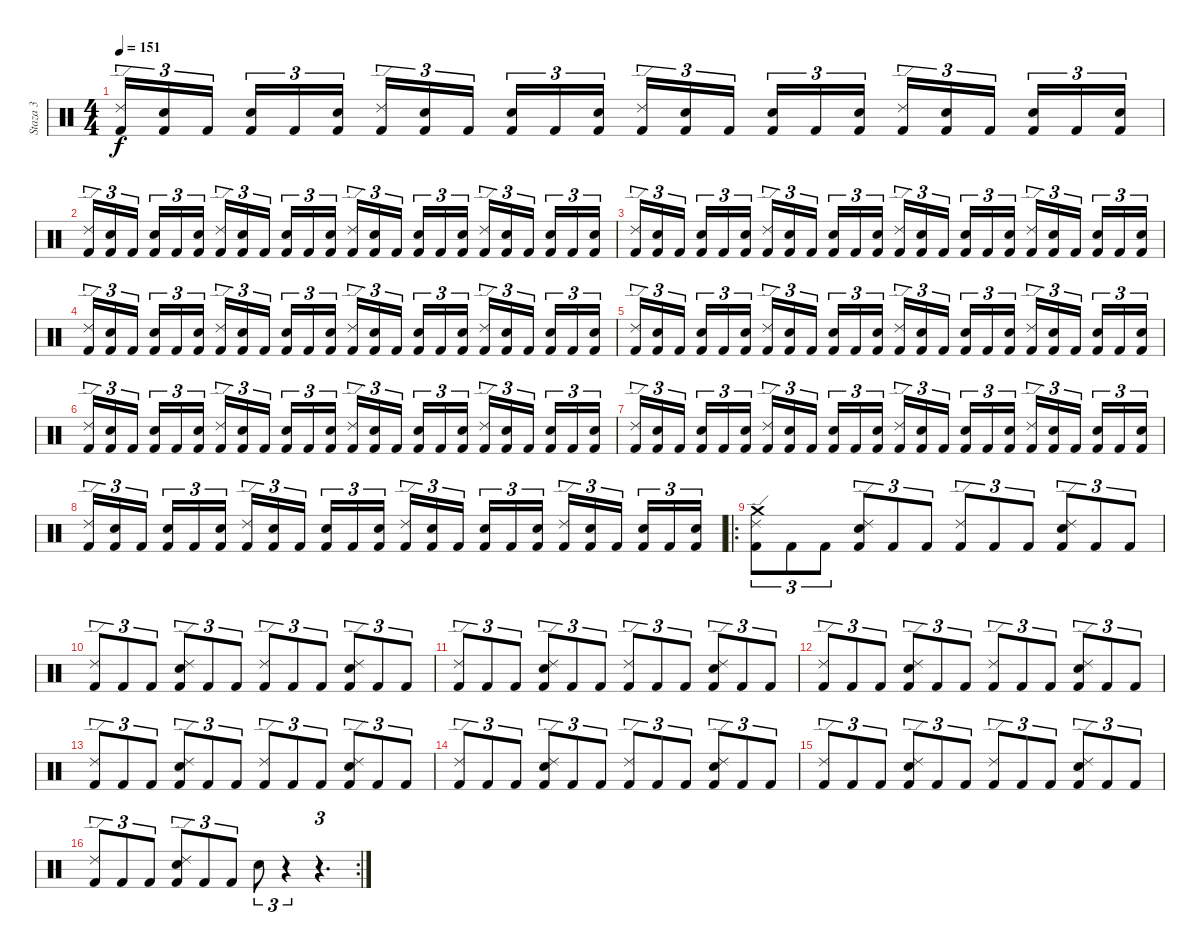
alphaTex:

\track ("Staza 3" "Staza 3") {instrument percussion}
\staff {score}
\articulation defaults
\ts (4 4)
\tempo 151
\clef neutral
\ks c
("Kick (hit) 2" "Ride (edge) 2").16{tu (3 2) dy f} ("Kick (hit) 2" "Electric Snare (hit)").16{tu (3 2)} "Kick (hit) 2".16{tu (3 2)} ("Kick (hit) 2" "Electric Snare (hit)").16{tu (3 2)} "Kick (hit) 2".16{tu (3 2)} ("Kick (hit) 2" "Electric Snare (hit)").16{tu (3 2)} ("Kick (hit) 2" "Ride (edge) 2").16{tu (3 2)} ("Kick (hit) 2" "Electric Snare (hit)").16{tu (3 2)} "Kick (hit) 2".16{tu (3 2)} ("Kick (hit) 2" "Electric Snare (hit)").16{tu (3 2)} "Kick (hit) 2".16{tu (3 2)} ("Kick (hit) 2" "Electric Snare (hit)").16{tu (3 2)} ("Kick (hit) 2" "Ride (edge) 2").16{tu (3 2)} ("Kick (hit) 2" "Electric Snare (hit)").16{tu (3 2)} "Kick (hit) 2".16{tu (3 2)} ("Kick (hit) 2" "Electric Snare (hit)").16{tu (3 2)} "Kick (hit) 2".16{tu (3 2)} ("Kick (hit) 2" "Electric Snare (hit)").16{tu (3 2)} ("Kick (hit) 2" "Ride (edge) 2").16{tu (3 2)} ("Kick (hit) 2" "Electric Snare (hit)").16{tu (3 2)} "Kick (hit) 2".16{tu (3 2)} ("Kick (hit) 2" "Electric Snare (hit)").16{tu (3 2)} "Kick (hit) 2".16{tu (3 2)} ("Kick (hit) 2" "Electric Snare (hit)").16{tu (3 2)} |
("Kick (hit) 2" "Ride (edge) 2").16{tu (3 2)} ("Kick (hit) 2" "Electric Snare (hit)").16{tu (3 2)} "Kick (hit) 2".16{tu (3 2)} ("Kick (hit) 2" "Electric Snare (hit)").16{tu (3 2)} "Kick (hit) 2".16{tu (3 2)} ("Kick (hit) 2" "Electric Snare (hit)").16{tu (3 2)} ("Kick (hit) 2" "Ride (edge) 2").16{tu (3 2)} ("Kick (hit) 2" "Electric Snare (hit)").16{tu (3 2)} "Kick (hit) 2".16{tu (3 2)} ("Kick (hit) 2" "Electric Snare (hit)").16{tu (3 2)} "Kick (hit) 2".16{tu (3 2)} ("Kick (hit) 2" "Electric Snare (hit)").16{tu (3 2)} ("Kick (hit) 2" "Ride (edge) 2").16{tu (3 2)} ("Kick (hit) 2" "Electric Snare (hit)").16{tu (3 2)} "Kick (hit) 2".16{tu (3 2)} ("Kick (hit) 2" "Electric Snare (hit)").16{tu (3 2)} "Kick (hit) 2".16{tu (3 2)} ("Kick (hit) 2" "Electric Snare (hit)").16{tu (3 2)} ("Kick (hit) 2" "Ride (edge) 2").16{tu (3 2)} ("Kick (hit) 2" "Electric Snare (hit)").16{tu (3 2)} "Kick (hit) 2".16{tu (3 2)} ("Kick (hit) 2" "Electric Snare (hit)").16{tu (3 2)} "Kick (hit) 2".16{tu (3 2)} ("Kick (hit) 2" "Electric Snare (hit)").16{tu (3 2)} |
("Kick (hit) 2" "Ride (edge) 2").16{tu (3 2)} ("Kick (hit) 2" "Electric Snare (hit)").16{tu (3 2)} "Kick (hit) 2".16{tu (3 2)} ("Kick (hit) 2" "Electric Snare (hit)").16{tu (3 2)} "Kick (hit) 2".16{tu (3 2)} ("Kick (hit) 2" "Electric Snare (hit)").16{tu (3 2)} ("Kick (hit) 2" "Ride (edge) 2").16{tu (3 2)} ("Kick (hit) 2" "Electric Snare (hit)").16{tu (3 2)} "Kick (hit) 2".16{tu (3 2)} ("Kick (hit) 2" "Electric Snare (hit)").16{tu (3 2)} "Kick (hit) 2".16{tu (3 2)} ("Kick (hit) 2" "Electric Snare (hit)").16{tu (3 2)} ("Kick (hit) 2" "Ride (edge) 2").16{tu (3 2)} ("Kick (hit) 2" "Electric Snare (hit)").16{tu (3 2)} "Kick (hit) 2".16{tu (3 2)} ("Kick (hit) 2" "Electric Snare (hit)").16{tu (3 2)} "Kick (hit) 2".16{tu (3 2)} ("Kick (hit) 2" "Electric Snare (hit)").16{tu (3 2)} ("Kick (hit) 2" "Ride (edge) 2").16{tu (3 2)} ("Kick (hit) 2" "Electric Snare (hit)").16{tu (3 2)} "Kick (hit) 2".16{tu (3 2)} ("Kick (hit) 2" "Electric Snare (hit)").16{tu (3 2)} "Kick (hit) 2".16{tu (3 2)} ("Kick (hit) 2" "Electric Snare (hit)").16{tu (3 2)} |
("Kick (hit) 2" "Ride (edge) 2").16{tu (3 2)} ("Kick (hit) 2" "Electric Snare (hit)").16{tu (3 2)} "Kick (hit) 2".16{tu (3 2)} ("Kick (hit) 2" "Electric Snare (hit)").16{tu (3 2)} "Kick (hit) 2".16{tu (3 2)} ("Kick (hit) 2" "Electric Snare (hit)").16{tu (3 2)} ("Kick (hit) 2" "Ride (edge) 2").16{tu (3 2)} ("Kick (hit) 2" "Electric Snare (hit)").16{tu (3 2)} "Kick (hit) 2".16{tu (3 2)} ("Kick (hit) 2" "Electric Snare (hit)").16{tu (3 2)} "Kick (hit) 2".16{tu (3 2)} ("Kick (hit) 2" "Electric Snare (hit)").16{tu (3 2)} ("Kick (hit) 2" "Ride (edge) 2").16{tu (3 2)} ("Kick (hit) 2" "Electric Snare (hit)").16{tu (3 2)} "Kick (hit) 2".16{tu (3 2)} ("Kick (hit) 2" "Electric Snare (hit)").16{tu (3 2)} "Kick (hit) 2".16{tu (3 2)} ("Kick (hit) 2" "Electric Snare (hit)").16{tu (3 2)} ("Kick (hit) 2" "Ride (edge) 2").16{tu (3 2)} ("Kick (hit) 2" "Electric Snare (hit)").16{tu (3 2)} "Kick (hit) 2".16{tu (3 2)} ("Kick (hit) 2" "Electric Snare (hit)").16{tu (3 2)} "Kick (hit) 2".16{tu (3 2)} ("Kick (hit) 2" "Electric Snare (hit)").16{tu (3 2)} |
("Kick (hit) 2" "Ride (edge) 2").16{tu (3 2)} ("Kick (hit) 2" "Electric Snare (hit)").16{tu (3 2)} "Kick (hit) 2".16{tu (3 2)} ("Kick (hit) 2" "Electric Snare (hit)").16{tu (3 2)} "Kick (hit) 2".16{tu (3 2)} ("Kick (hit) 2" "Electric Snare (hit)").16{tu (3 2)} ("Kick (hit) 2" "Ride (edge) 2").16{tu (3 2)} ("Kick (hit) 2" "Electric Snare (hit)").16{tu (3 2)} "Kick (hit) 2".16{tu (3 2)} ("Kick (hit) 2" "Electric Snare (hit)").16{tu (3 2)} "Kick (hit) 2".16{tu (3 2)} ("Kick (hit) 2" "Electric Snare (hit)").16{tu (3 2)} ("Kick (hit) 2" "Ride (edge) 2").16{tu (3 2)} ("Kick (hit) 2" "Electric Snare (hit)").16{tu (3 2)} "Kick (hit) 2".16{tu (3 2)} ("Kick (hit) 2" "Electric Snare (hit)").16{tu (3 2)} "Kick (hit) 2".16{tu (3 2)} ("Kick (hit) 2" "Electric Snare (hit)").16{tu (3 2)} ("Kick (hit) 2" "Ride (edge) 2").16{tu (3 2)} ("Kick (hit) 2" "Electric Snare (hit)").16{tu (3 2)} "Kick (hit) 2".16{tu (3 2)} ("Kick (hit) 2" "Electric Snare (hit)").16{tu (3 2)} "Kick (hit) 2".16{tu (3 2)} ("Kick (hit) 2" "Electric Snare (hit)").16{tu (3 2)} |
("Kick (hit) 2" "Ride (edge) 2").16{tu (3 2)} ("Kick (hit) 2" "Electric Snare (hit)").16{tu (3 2)} "Kick (hit) 2".16{tu (3 2)} ("Kick (hit) 2" "Electric Snare (hit)").16{tu (3 2)} "Kick (hit) 2".16{tu (3 2)} ("Kick (hit) 2" "Electric Snare (hit)").16{tu (3 2)} ("Kick (hit) 2" "Ride (edge) 2").16{tu (3 2)} ("Kick (hit) 2" "Electric Snare (hit)").16{tu (3 2)} "Kick (hit) 2".16{tu (3 2)} ("Kick (hit) 2" "Electric Snare (hit)").16{tu (3 2)} "Kick (hit) 2".16{tu (3 2)} ("Kick (hit) 2" "Electric Snare (hit)").16{tu (3 2)} ("Kick (hit) 2" "Ride (edge) 2").16{tu (3 2)} ("Kick (hit) 2" "Electric Snare (hit)").16{tu (3 2)} "Kick (hit) 2".16{tu (3 2)} ("Kick (hit) 2" "Electric Snare (hit)").16{tu (3 2)} "Kick (hit) 2".16{tu (3 2)} ("Kick (hit) 2" "Electric Snare (hit)").16{tu (3 2)} ("Kick (hit) 2" "Ride (edge) 2").16{tu (3 2)} ("Kick (hit) 2" "Electric Snare (hit)").16{tu (3 2)} "Kick (hit) 2".16{tu (3 2)} ("Kick (hit) 2" "Electric Snare (hit)").16{tu (3 2)} "Kick (hit) 2".16{tu (3 2)} ("Kick (hit) 2" "Electric Snare (hit)").16{tu (3 2)} |
("Kick (hit) 2" "Ride (edge) 2").16{tu (3 2)} ("Kick (hit) 2" "Electric Snare (hit)").16{tu (3 2)} "Kick (hit) 2".16{tu (3 2)} ("Kick (hit) 2" "Electric Snare (hit)").16{tu (3 2)} "Kick (hit) 2".16{tu (3 2)} ("Kick (hit) 2" "Electric Snare (hit)").16{tu (3 2)} ("Kick (hit) 2" "Ride (edge) 2").16{tu (3 2)} ("Kick (hit) 2" "Electric Snare (hit)").16{tu (3 2)} "Kick (hit) 2".16{tu (3 2)} ("Kick (hit) 2" "Electric Snare (hit)").16{tu (3 2)} "Kick (hit) 2".16{tu (3 2)} ("Kick (hit) 2" "Electric Snare (hit)").16{tu (3 2)} ("Kick (hit) 2" "Ride (edge) 2").16{tu (3 2)} ("Kick (hit) 2" "Electric Snare (hit)").16{tu (3 2)} "Kick (hit) 2".16{tu (3 2)} ("Kick (hit) 2" "Electric Snare (hit)").16{tu (3 2)} "Kick (hit) 2".16{tu (3 2)} ("Kick (hit) 2" "Electric Snare (hit)").16{tu (3 2)} ("Kick (hit) 2" "Ride (edge) 2").16{tu (3 2)} ("Kick (hit) 2" "Electric Snare (hit)").16{tu (3 2)} "Kick (hit) 2".16{tu (3 2)} ("Kick (hit) 2" "Electric Snare (hit)").16{tu (3 2)} "Kick (hit) 2".16{tu (3 2)} ("Kick (hit) 2" "Electric Snare (hit)").16{tu (3 2)} |
("Kick (hit) 2" "Ride (edge) 2").16{tu (3 2)} ("Kick (hit) 2" "Electric Snare (hit)").16{tu (3 2)} "Kick (hit) 2".16{tu (3 2)} ("Kick (hit) 2" "Electric Snare (hit)").16{tu (3 2)} "Kick (hit) 2".16{tu (3 2)} ("Kick (hit) 2" "Electric Snare (hit)").16{tu (3 2)} ("Kick (hit) 2" "Ride (edge) 2").16{tu (3 2)} ("Kick (hit) 2" "Electric Snare (hit)").16{tu (3 2)} "Kick (hit) 2".16{tu (3 2)} ("Kick (hit) 2" "Electric Snare (hit)").16{tu (3 2)} "Kick (hit) 2".16{tu (3 2)} ("Kick (hit) 2" "Electric Snare (hit)").16{tu (3 2)} ("Kick (hit) 2" "Ride (edge) 2").16{tu (3 2)} ("Kick (hit) 2" "Electric Snare (hit)").16{tu (3 2)} "Kick (hit) 2".16{tu (3 2)} ("Kick (hit) 2" "Electric Snare (hit)").16{tu (3 2)} "Kick (hit) 2".16{tu (3 2)} ("Kick (hit) 2" "Electric Snare (hit)").16{tu (3 2)} ("Kick (hit) 2" "Ride (edge) 2").16{tu (3 2)} ("Kick (hit) 2" "Electric Snare (hit)").16{tu (3 2)} "Kick (hit) 2".16{tu (3 2)} ("Kick (hit) 2" "Electric Snare (hit)").16{tu (3 2)} "Kick (hit) 2".16{tu (3 2)} ("Kick (hit) 2" "Electric Snare (hit)").16{tu (3 2)} |
\ro
("Kick (hit) 2" "Crash medium (hit)" "Ride (edge) 2").8{tu (3 2)} "Kick (hit) 2".8{tu (3 2)} "Kick (hit) 2".8{tu (3 2)} ("Kick (hit) 2" "Electric Snare (hit)" "Ride (edge) 2").8{tu (3 2)} "Kick (hit) 2".8{tu (3 2)} "Kick (hit) 2".8{tu (3 2)} ("Kick (hit) 2" "Ride (edge) 2").8{tu (3 2)} "Kick (hit) 2".8{tu (3 2)} "Kick (hit) 2".8{tu (3 2)} ("Kick (hit) 2" "Electric Snare (hit)" "Ride (edge) 2").8{tu (3 2)} "Kick (hit) 2".8{tu (3 2)} "Kick (hit) 2".8{tu (3 2)} |
("Kick (hit) 2" "Ride (edge) 2").8{tu (3 2)} "Kick (hit) 2".8{tu (3 2)} "Kick (hit) 2".8{tu (3 2)} ("Kick (hit) 2" "Electric Snare (hit)" "Ride (edge) 2").8{tu (3 2)} "Kick (hit) 2".8{tu (3 2)} "Kick (hit) 2".8{tu (3 2)} ("Kick (hit) 2" "Ride (edge) 2").8{tu (3 2)} "Kick (hit) 2".8{tu (3 2)} "Kick (hit) 2".8{tu (3 2)} ("Kick (hit) 2" "Electric Snare (hit)" "Ride (edge) 2").8{tu (3 2)} "Kick (hit) 2".8{tu (3 2)} "Kick (hit) 2".8{tu (3 2)} |
("Kick (hit) 2" "Ride (edge) 2").8{tu (3 2)} "Kick (hit) 2".8{tu (3 2)} "Kick (hit) 2".8{tu (3 2)} ("Kick (hit) 2" "Electric Snare (hit)" "Ride (edge) 2").8{tu (3 2)} "Kick (hit) 2".8{tu (3 2)} "Kick (hit) 2".8{tu (3 2)} ("Kick (hit) 2" "Ride (edge) 2").8{tu (3 2)} "Kick (hit) 2".8{tu (3 2)} "Kick (hit) 2".8{tu (3 2)} ("Kick (hit) 2" "Electric Snare (hit)" "Ride (edge) 2").8{tu (3 2)} "Kick (hit) 2".8{tu (3 2)} "Kick (hit) 2".8{tu (3 2)} |
("Kick (hit) 2" "Ride (edge) 2").8{tu (3 2)} "Kick (hit) 2".8{tu (3 2)} "Kick (hit) 2".8{tu (3 2)} ("Kick (hit) 2" "Electric Snare (hit)" "Ride (edge) 2").8{tu (3 2)} "Kick (hit) 2".8{tu (3 2)} "Kick (hit) 2".8{tu (3 2)} ("Kick (hit) 2" "Ride (edge) 2").8{tu (3 2)} "Kick (hit) 2".8{tu (3 2)} "Kick (hit) 2".8{tu (3 2)} ("Kick (hit) 2" "Electric Snare (hit)" "Ride (edge) 2").8{tu (3 2)} "Kick (hit) 2".8{tu (3 2)} "Kick (hit) 2".8{tu (3 2)} |
("Kick (hit) 2" "Ride (edge) 2").8{tu (3 2)} "Kick (hit) 2".8{tu (3 2)} "Kick (hit) 2".8{tu (3 2)} ("Kick (hit) 2" "Electric Snare (hit)" "Ride (edge) 2").8{tu (3 2)} "Kick (hit) 2".8{tu (3 2)} "Kick (hit) 2".8{tu (3 2)} ("Kick (hit) 2" "Ride (edge) 2").8{tu (3 2)} "Kick (hit) 2".8{tu (3 2)} "Kick (hit) 2".8{tu (3 2)} ("Kick (hit) 2" "Electric Snare (hit)" "Ride (edge) 2").8{tu (3 2)} "Kick (hit) 2".8{tu (3 2)} "Kick (hit) 2".8{tu (3 2)} |
("Kick (hit) 2" "Ride (edge) 2").8{tu (3 2)} "Kick (hit) 2".8{tu (3 2)} "Kick (hit) 2".8{tu (3 2)} ("Kick (hit) 2" "Electric Snare (hit)" "Ride (edge) 2").8{tu (3 2)} "Kick (hit) 2".8{tu (3 2)} "Kick (hit) 2".8{tu (3 2)} ("Kick (hit) 2" "Ride (edge) 2").8{tu (3 2)} "Kick (hit) 2".8{tu (3 2)} "Kick (hit) 2".8{tu (3 2)} ("Kick (hit) 2" "Electric Snare (hit)" "Ride (edge) 2").8{tu (3 2)} "Kick (hit) 2".8{tu (3 2)} "Kick (hit) 2".8{tu (3 2)} |
("Kick (hit) 2" "Ride (edge) 2").8{tu (3 2)} "Kick (hit) 2".8{tu (3 2)} "Kick (hit) 2".8{tu (3 2)} ("Kick (hit) 2" "Electric Snare (hit)" "Ride (edge) 2").8{tu (3 2)} "Kick (hit) 2".8{tu (3 2)} "Kick (hit) 2".8{tu (3 2)} ("Kick (hit) 2" "Ride (edge) 2").8{tu (3 2)} "Kick (hit) 2".8{tu (3 2)} "Kick (hit) 2".8{tu (3 2)} ("Kick (hit) 2" "Electric Snare (hit)" "Ride (edge) 2").8{tu (3 2)} "Kick (hit) 2".8{tu (3 2)} "Kick (hit) 2".8{tu (3 2)} |
\rc 2
("Kick (hit) 2" "Ride (edge) 2").8{tu (3 2)} "Kick (hit) 2".8{tu (3 2)} "Kick (hit) 2".8{tu (3 2)} ("Kick (hit) 2" "Electric Snare (hit)" "Ride (edge) 2").8{tu (3 2)} "Kick (hit) 2".8{tu (3 2)} "Kick (hit) 2".8{tu (3 2)} "Electric Snare (hit)".8{tu (3 2)} r.4{tu (3 2)} r.4{d tu (3 2)}
